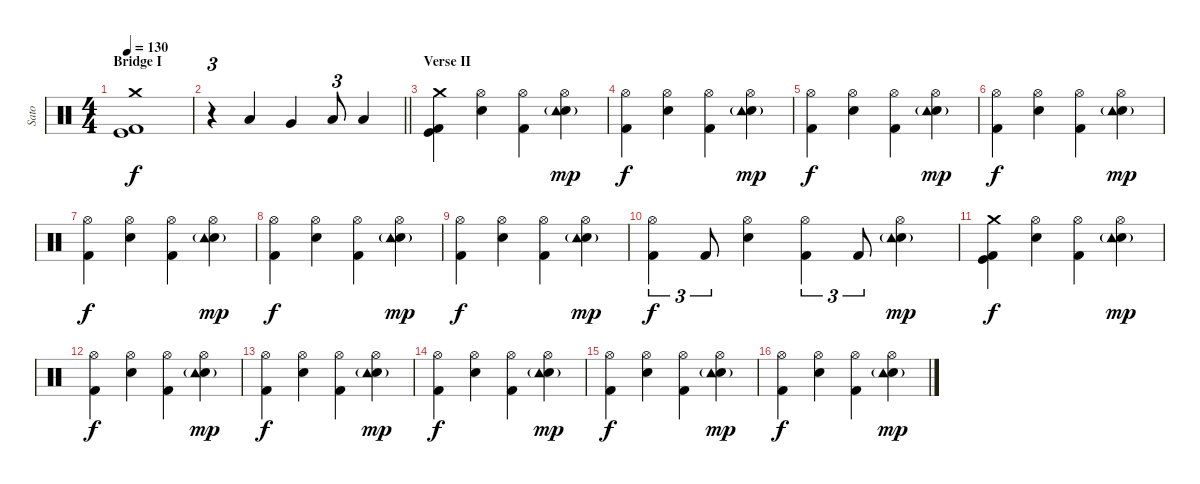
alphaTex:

\track ("Sato" "Sato") {instrument percussion}
\staff {score}
\articulation defaults
\ts (4 4)
\section ("" "Bridge I")
\tempo 130
\clef neutral
\ks c
("Crash medium (hit)" "Kick (hit)" "Kick (hit) 2").1{dy f} |
\barLineRight lightlight
r.4{tu (3 2)} "Low Tom (hit)".4 "Very Low Tom (hit)".4 "Low Floor Tom (hit)".8{tu (3 2)} "Low Floor Tom (hit)".4 |
\section ("" "Verse II")
("Crash medium (hit)" "Kick (hit) 2" "Kick (hit)").4 ("Hi-Hat (open)" "Electric Snare (hit)").4 ("Hi-Hat (open)" "Kick (hit) 2").4 ("Hi-Hat (open)" "Electric Snare (hit)" "Tambourine (hit)"{g}).4{dy mp} |
("Hi-Hat (open)" "Kick (hit) 2").4{dy f} ("Hi-Hat (open)" "Electric Snare (hit)").4 ("Hi-Hat (open)" "Kick (hit) 2").4 ("Hi-Hat (open)" "Electric Snare (hit)" "Tambourine (hit)"{g}).4{dy mp} |
("Hi-Hat (open)" "Kick (hit) 2").4{dy f} ("Hi-Hat (open)" "Electric Snare (hit)").4 ("Hi-Hat (open)" "Kick (hit) 2").4 ("Hi-Hat (open)" "Electric Snare (hit)" "Tambourine (hit)"{g}).4{dy mp} |
("Hi-Hat (open)" "Kick (hit) 2").4{dy f} ("Hi-Hat (open)" "Electric Snare (hit)").4 ("Hi-Hat (open)" "Kick (hit) 2").4 ("Hi-Hat (open)" "Electric Snare (hit)" "Tambourine (hit)"{g}).4{dy mp} |
("Hi-Hat (open)" "Kick (hit) 2").4{dy f} ("Hi-Hat (open)" "Electric Snare (hit)").4 ("Hi-Hat (open)" "Kick (hit) 2").4 ("Hi-Hat (open)" "Electric Snare (hit)" "Tambourine (hit)"{g}).4{dy mp} |
("Hi-Hat (open)" "Kick (hit) 2").4{dy f} ("Hi-Hat (open)" "Electric Snare (hit)").4 ("Hi-Hat (open)" "Kick (hit) 2").4 ("Hi-Hat (open)" "Electric Snare (hit)" "Tambourine (hit)"{g}).4{dy mp} |
("Hi-Hat (open)" "Kick (hit) 2").4{dy f} ("Hi-Hat (open)" "Electric Snare (hit)").4 ("Hi-Hat (open)" "Kick (hit) 2").4 ("Hi-Hat (open)" "Electric Snare (hit)" "Tambourine (hit)"{g}).4{dy mp} |
("Hi-Hat (open)" "Kick (hit) 2").4{tu (3 2) dy f} "Kick (hit) 2".8{tu (3 2)} ("Hi-Hat (open)" "Electric Snare (hit)").4 ("Hi-Hat (open)" "Kick (hit) 2").4{tu (3 2)} "Kick (hit) 2".8{tu (3 2)} ("Hi-Hat (open)" "Electric Snare (hit)" "Tambourine (hit)"{g}).4{dy mp} |
("Crash medium (hit)" "Kick (hit) 2" "Kick (hit)").4{dy f} ("Hi-Hat (open)" "Electric Snare (hit)").4 ("Hi-Hat (open)" "Kick (hit) 2").4 ("Hi-Hat (open)" "Electric Snare (hit)" "Tambourine (hit)"{g}).4{dy mp} |
("Hi-Hat (open)" "Kick (hit) 2").4{dy f} ("Hi-Hat (open)" "Electric Snare (hit)").4 ("Hi-Hat (open)" "Kick (hit) 2").4 ("Hi-Hat (open)" "Electric Snare (hit)" "Tambourine (hit)"{g}).4{dy mp} |
("Hi-Hat (open)" "Kick (hit) 2").4{dy f} ("Hi-Hat (open)" "Electric Snare (hit)").4 ("Hi-Hat (open)" "Kick (hit) 2").4 ("Hi-Hat (open)" "Electric Snare (hit)" "Tambourine (hit)"{g}).4{dy mp} |
("Hi-Hat (open)" "Kick (hit) 2").4{dy f} ("Hi-Hat (open)" "Electric Snare (hit)").4 ("Hi-Hat (open)" "Kick (hit) 2").4 ("Hi-Hat (open)" "Electric Snare (hit)" "Tambourine (hit)"{g}).4{dy mp} |
("Hi-Hat (open)" "Kick (hit) 2").4{dy f} ("Hi-Hat (open)" "Electric Snare (hit)").4 ("Hi-Hat (open)" "Kick (hit) 2").4 ("Hi-Hat (open)" "Electric Snare (hit)" "Tambourine (hit)"{g}).4{dy mp} |
("Hi-Hat (open)" "Kick (hit) 2").4{dy f} ("Hi-Hat (open)" "Electric Snare (hit)").4 ("Hi-Hat (open)" "Kick (hit) 2").4 ("Hi-Hat (open)" "Electric Snare (hit)" "Tambourine (hit)"{g}).4{dy mp}
